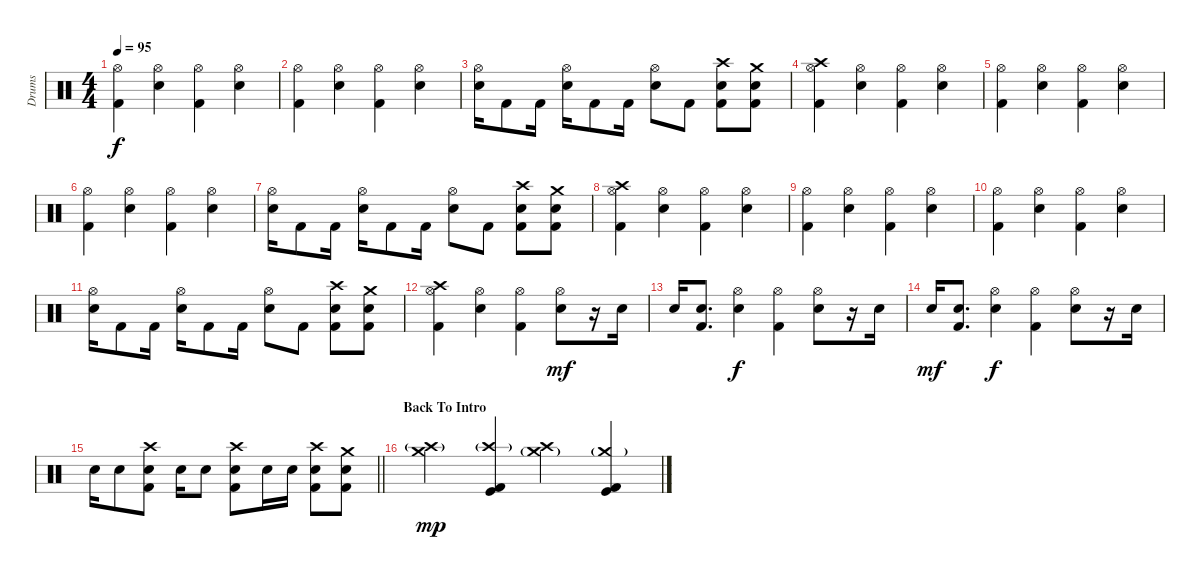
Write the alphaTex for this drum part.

\track ("Drums" "Drums") {instrument percussion}
\staff {score}
\articulation defaults
\ts (4 4)
\tempo 95
\clef neutral
\ks c
("Hi-Hat (open)" "Kick (hit) 2").4{dy f} ("Hi-Hat (open)" "Electric Snare (hit)").4 ("Hi-Hat (open)" "Kick (hit) 2").4 ("Hi-Hat (open)" "Electric Snare (hit)").4 |
("Hi-Hat (open)" "Kick (hit) 2").4 ("Hi-Hat (open)" "Electric Snare (hit)").4 ("Hi-Hat (open)" "Kick (hit) 2").4 ("Hi-Hat (open)" "Electric Snare (hit)").4 |
("Hi-Hat (open)" "Electric Snare (hit)").16 "Kick (hit) 2".8 "Kick (hit) 2".16 ("Hi-Hat (open)" "Electric Snare (hit)").16 "Kick (hit) 2".8 "Kick (hit) 2".16 ("Hi-Hat (open)" "Electric Snare (hit)").8 "Kick (hit) 2".8 ("Crash high (hit)" "Electric Snare (hit)" "Kick (hit) 2").8 ("Crash medium (hit)" "Electric Snare (hit)" "Kick (hit) 2").8 |
("Crash high (hit)" "Hi-Hat (open)" "Kick (hit) 2").4 ("Hi-Hat (open)" "Electric Snare (hit)").4 ("Hi-Hat (open)" "Kick (hit) 2").4 ("Hi-Hat (open)" "Electric Snare (hit)").4 |
("Hi-Hat (open)" "Kick (hit) 2").4 ("Hi-Hat (open)" "Electric Snare (hit)").4 ("Hi-Hat (open)" "Kick (hit) 2").4 ("Hi-Hat (open)" "Electric Snare (hit)").4 |
("Hi-Hat (open)" "Kick (hit) 2").4 ("Hi-Hat (open)" "Electric Snare (hit)").4 ("Hi-Hat (open)" "Kick (hit) 2").4 ("Hi-Hat (open)" "Electric Snare (hit)").4 |
("Hi-Hat (open)" "Electric Snare (hit)").16 "Kick (hit) 2".8 "Kick (hit) 2".16 ("Hi-Hat (open)" "Electric Snare (hit)").16 "Kick (hit) 2".8 "Kick (hit) 2".16 ("Hi-Hat (open)" "Electric Snare (hit)").8 "Kick (hit) 2".8 ("Crash high (hit)" "Electric Snare (hit)" "Kick (hit) 2").8 ("Crash medium (hit)" "Electric Snare (hit)" "Kick (hit) 2").8 |
("Crash high (hit)" "Hi-Hat (open)" "Kick (hit) 2").4 ("Hi-Hat (open)" "Electric Snare (hit)").4 ("Hi-Hat (open)" "Kick (hit) 2").4 ("Hi-Hat (open)" "Electric Snare (hit)").4 |
("Hi-Hat (open)" "Kick (hit) 2").4 ("Hi-Hat (open)" "Electric Snare (hit)").4 ("Hi-Hat (open)" "Kick (hit) 2").4 ("Hi-Hat (open)" "Electric Snare (hit)").4 |
("Hi-Hat (open)" "Kick (hit) 2").4 ("Hi-Hat (open)" "Electric Snare (hit)").4 ("Hi-Hat (open)" "Kick (hit) 2").4 ("Hi-Hat (open)" "Electric Snare (hit)").4 |
("Hi-Hat (open)" "Electric Snare (hit)").16 "Kick (hit) 2".8 "Kick (hit) 2".16 ("Hi-Hat (open)" "Electric Snare (hit)").16 "Kick (hit) 2".8 "Kick (hit) 2".16 ("Hi-Hat (open)" "Electric Snare (hit)").8 "Kick (hit) 2".8 ("Crash high (hit)" "Electric Snare (hit)" "Kick (hit) 2").8 ("Crash medium (hit)" "Electric Snare (hit)" "Kick (hit) 2").8 |
("Crash high (hit)" "Hi-Hat (open)" "Kick (hit) 2").4 ("Hi-Hat (open)" "Electric Snare (hit)").4 ("Hi-Hat (open)" "Kick (hit) 2").4 ("Hi-Hat (open)" "Electric Snare (hit)").8{dy mf} r.16 "Electric Snare (hit)".16 |
"Electric Snare (hit)".16 ("Electric Snare (hit)" "Kick (hit) 2").8{d} ("Hi-Hat (open)" "Electric Snare (hit)").4{dy f} ("Hi-Hat (open)" "Kick (hit) 2").4 ("Hi-Hat (open)" "Electric Snare (hit)").8 r.16 "Electric Snare (hit)".16 |
"Electric Snare (hit)".16{dy mf} ("Electric Snare (hit)" "Kick (hit) 2").8{d} ("Hi-Hat (open)" "Electric Snare (hit)").4{dy f} ("Hi-Hat (open)" "Kick (hit) 2").4 ("Hi-Hat (open)" "Electric Snare (hit)").8 r.16 "Electric Snare (hit)".16 |
\barLineRight lightlight "Electric Snare (hit)".16 "Electric Snare (hit)".8
("Crash high (hit)" "Electric Snare (hit)" "Kick (hit) 2").8 "Electric Snare (hit)".16 "Electric Snare (hit)".8 ("Crash high (hit)" "Electric Snare (hit)" "Kick (hit) 2").8 "Electric Snare (hit)".16 "Electric Snare (hit)".16 ("Crash high (hit)" "Electric Snare (hit)" "Kick (hit) 2").8 ("Crash medium (hit)" "Electric Snare (hit)" "Kick (hit) 2").8 |
\section ("" "Back To Intro")
("Crash medium (hit)" "Crash high (hit)"{g}).4{dy mp} ("Crash high (hit)"{g} "Kick (hit)" "Kick (hit) 2").4 ("Crash high (hit)" "Crash medium (hit)"{g}).4 ("Crash medium (hit)"{g} "Kick (hit)" "Kick (hit) 2").4
